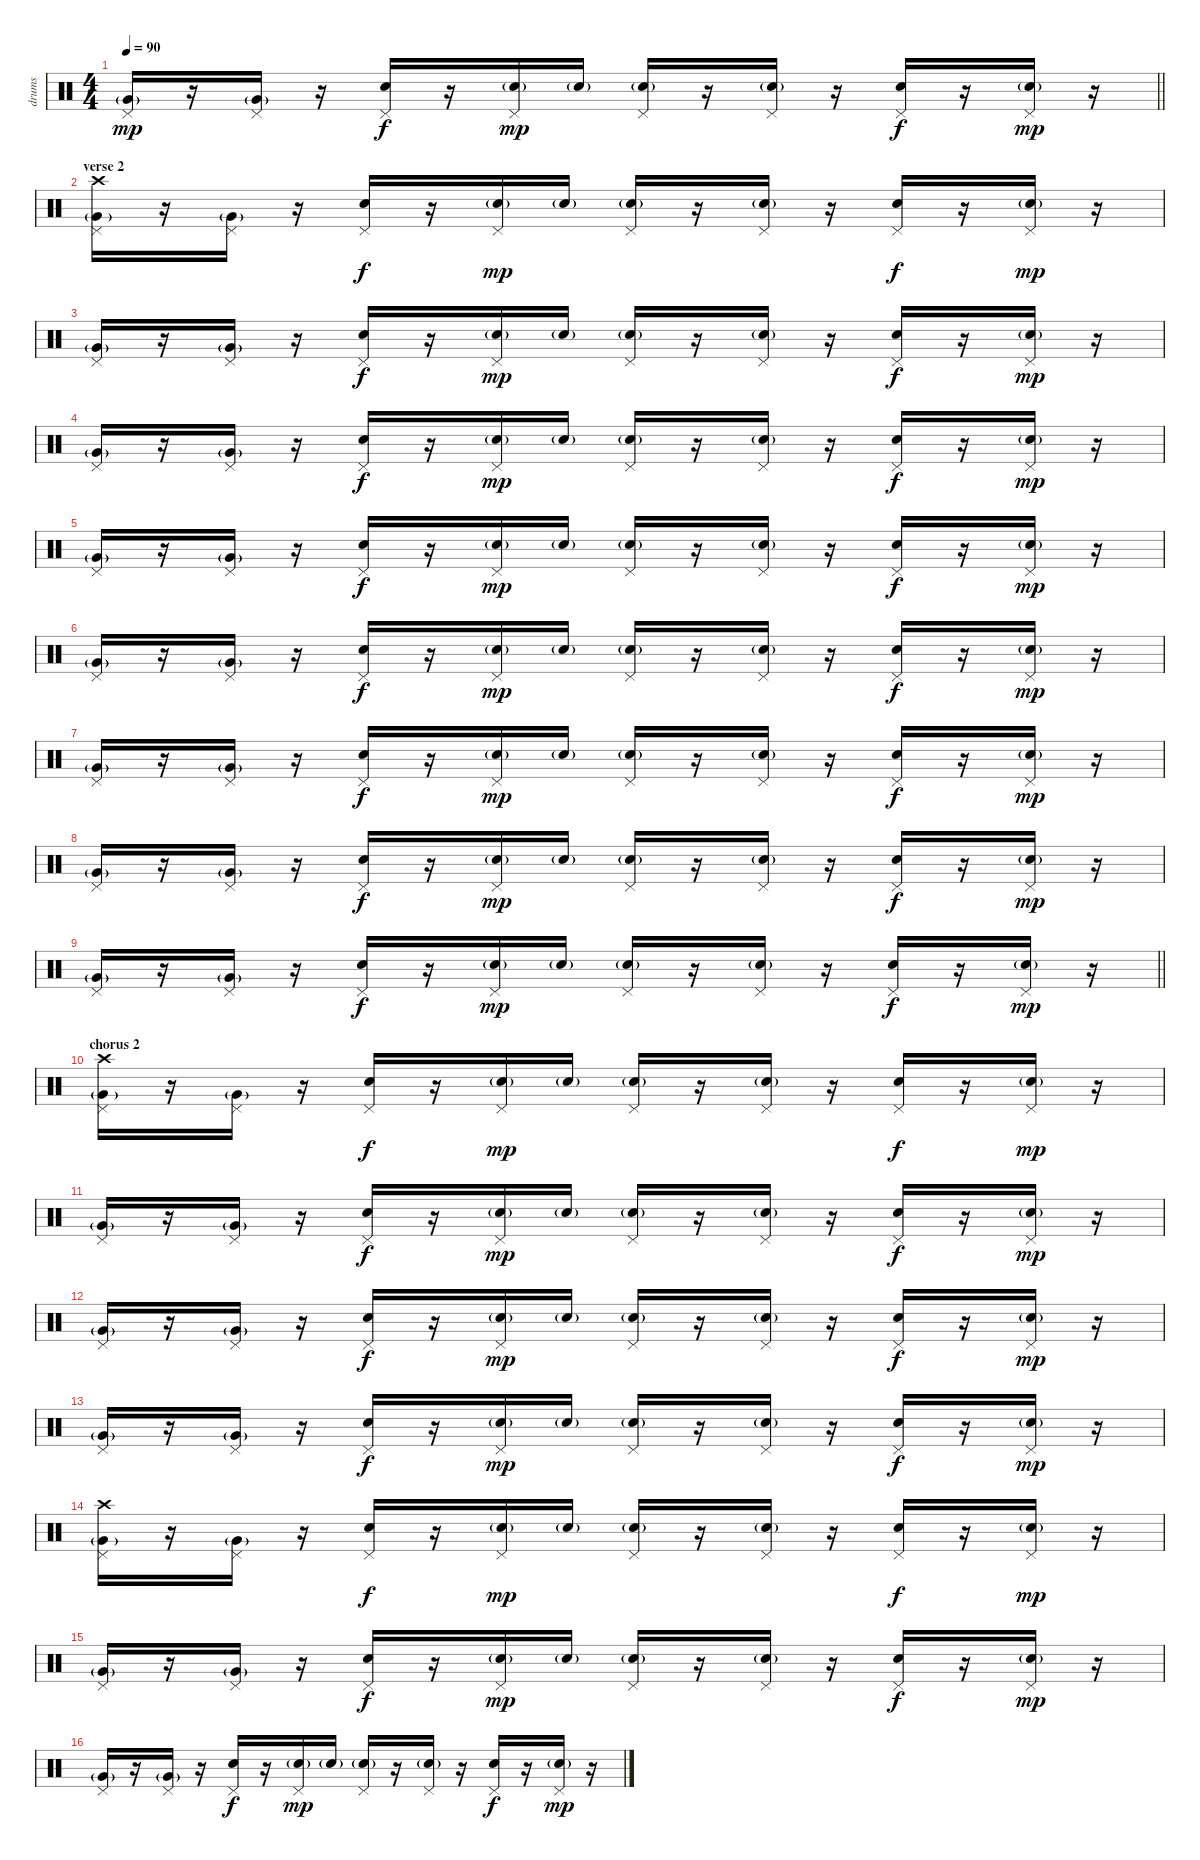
\track ("drums" "drums") {instrument percussion}
\staff {score}
\articulation defaults
\ts (4 4)
\tempo 90
\clef neutral
\barLineRight lightlight
\ks c
("Very Low Tom (hit)"{g} "Pedal Hi-Hat (hit)").16{dy mp} r.16 ("Very Low Tom (hit)"{g} "Pedal Hi-Hat (hit)").16 r.16 ("Electric Snare (hit)" "Pedal Hi-Hat (hit)").16{dy f} r.16 ("Electric Snare (hit)"{g} "Pedal Hi-Hat (hit)").16{dy mp} "Electric Snare (hit)"{g}.16 ("Electric Snare (hit)"{g} "Pedal Hi-Hat (hit)").16 r.16 ("Electric Snare (hit)"{g} "Pedal Hi-Hat (hit)").16 r.16 ("Electric Snare (hit)" "Pedal Hi-Hat (hit)").16{dy f} r.16 ("Electric Snare (hit)"{g} "Pedal Hi-Hat (hit)").16{dy mp} r.16 |
\section ("" "verse 2")
("Very Low Tom (hit)"{g} "Pedal Hi-Hat (hit)" "Crash high (hit)").16 r.16 ("Very Low Tom (hit)"{g} "Pedal Hi-Hat (hit)").16 r.16 ("Electric Snare (hit)" "Pedal Hi-Hat (hit)").16{dy f} r.16 ("Electric Snare (hit)"{g} "Pedal Hi-Hat (hit)").16{dy mp} "Electric Snare (hit)"{g}.16 ("Electric Snare (hit)"{g} "Pedal Hi-Hat (hit)").16 r.16 ("Electric Snare (hit)"{g} "Pedal Hi-Hat (hit)").16 r.16 ("Electric Snare (hit)" "Pedal Hi-Hat (hit)").16{dy f} r.16 ("Electric Snare (hit)"{g} "Pedal Hi-Hat (hit)").16{dy mp} r.16 |
("Very Low Tom (hit)"{g} "Pedal Hi-Hat (hit)").16 r.16 ("Very Low Tom (hit)"{g} "Pedal Hi-Hat (hit)").16 r.16 ("Electric Snare (hit)" "Pedal Hi-Hat (hit)").16{dy f} r.16 ("Electric Snare (hit)"{g} "Pedal Hi-Hat (hit)").16{dy mp} "Electric Snare (hit)"{g}.16 ("Electric Snare (hit)"{g} "Pedal Hi-Hat (hit)").16 r.16 ("Electric Snare (hit)"{g} "Pedal Hi-Hat (hit)").16 r.16 ("Electric Snare (hit)" "Pedal Hi-Hat (hit)").16{dy f} r.16 ("Electric Snare (hit)"{g} "Pedal Hi-Hat (hit)").16{dy mp} r.16 |
("Very Low Tom (hit)"{g} "Pedal Hi-Hat (hit)").16 r.16 ("Very Low Tom (hit)"{g} "Pedal Hi-Hat (hit)").16 r.16 ("Electric Snare (hit)" "Pedal Hi-Hat (hit)").16{dy f} r.16 ("Electric Snare (hit)"{g} "Pedal Hi-Hat (hit)").16{dy mp} "Electric Snare (hit)"{g}.16 ("Electric Snare (hit)"{g} "Pedal Hi-Hat (hit)").16 r.16 ("Electric Snare (hit)"{g} "Pedal Hi-Hat (hit)").16 r.16 ("Electric Snare (hit)" "Pedal Hi-Hat (hit)").16{dy f} r.16 ("Electric Snare (hit)"{g} "Pedal Hi-Hat (hit)").16{dy mp} r.16 |
("Very Low Tom (hit)"{g} "Pedal Hi-Hat (hit)").16 r.16 ("Very Low Tom (hit)"{g} "Pedal Hi-Hat (hit)").16 r.16 ("Electric Snare (hit)" "Pedal Hi-Hat (hit)").16{dy f} r.16 ("Electric Snare (hit)"{g} "Pedal Hi-Hat (hit)").16{dy mp} "Electric Snare (hit)"{g}.16 ("Electric Snare (hit)"{g} "Pedal Hi-Hat (hit)").16 r.16 ("Electric Snare (hit)"{g} "Pedal Hi-Hat (hit)").16 r.16 ("Electric Snare (hit)" "Pedal Hi-Hat (hit)").16{dy f} r.16 ("Electric Snare (hit)"{g} "Pedal Hi-Hat (hit)").16{dy mp} r.16 |
("Very Low Tom (hit)"{g} "Pedal Hi-Hat (hit)").16 r.16 ("Very Low Tom (hit)"{g} "Pedal Hi-Hat (hit)").16 r.16 ("Electric Snare (hit)" "Pedal Hi-Hat (hit)").16{dy f} r.16 ("Electric Snare (hit)"{g} "Pedal Hi-Hat (hit)").16{dy mp} "Electric Snare (hit)"{g}.16 ("Electric Snare (hit)"{g} "Pedal Hi-Hat (hit)").16 r.16 ("Electric Snare (hit)"{g} "Pedal Hi-Hat (hit)").16 r.16 ("Electric Snare (hit)" "Pedal Hi-Hat (hit)").16{dy f} r.16 ("Electric Snare (hit)"{g} "Pedal Hi-Hat (hit)").16{dy mp} r.16 |
("Very Low Tom (hit)"{g} "Pedal Hi-Hat (hit)").16 r.16 ("Very Low Tom (hit)"{g} "Pedal Hi-Hat (hit)").16 r.16 ("Electric Snare (hit)" "Pedal Hi-Hat (hit)").16{dy f} r.16 ("Electric Snare (hit)"{g} "Pedal Hi-Hat (hit)").16{dy mp} "Electric Snare (hit)"{g}.16 ("Electric Snare (hit)"{g} "Pedal Hi-Hat (hit)").16 r.16 ("Electric Snare (hit)"{g} "Pedal Hi-Hat (hit)").16 r.16 ("Electric Snare (hit)" "Pedal Hi-Hat (hit)").16{dy f} r.16 ("Electric Snare (hit)"{g} "Pedal Hi-Hat (hit)").16{dy mp} r.16 |
("Very Low Tom (hit)"{g} "Pedal Hi-Hat (hit)").16 r.16 ("Very Low Tom (hit)"{g} "Pedal Hi-Hat (hit)").16 r.16 ("Electric Snare (hit)" "Pedal Hi-Hat (hit)").16{dy f} r.16 ("Electric Snare (hit)"{g} "Pedal Hi-Hat (hit)").16{dy mp} "Electric Snare (hit)"{g}.16 ("Electric Snare (hit)"{g} "Pedal Hi-Hat (hit)").16 r.16 ("Electric Snare (hit)"{g} "Pedal Hi-Hat (hit)").16 r.16 ("Electric Snare (hit)" "Pedal Hi-Hat (hit)").16{dy f} r.16 ("Electric Snare (hit)"{g} "Pedal Hi-Hat (hit)").16{dy mp} r.16 |
\barLineRight lightlight
("Very Low Tom (hit)"{g} "Pedal Hi-Hat (hit)").16 r.16 ("Very Low Tom (hit)"{g} "Pedal Hi-Hat (hit)").16 r.16 ("Electric Snare (hit)" "Pedal Hi-Hat (hit)").16{dy f} r.16 ("Electric Snare (hit)"{g} "Pedal Hi-Hat (hit)").16{dy mp} "Electric Snare (hit)"{g}.16 ("Electric Snare (hit)"{g} "Pedal Hi-Hat (hit)").16 r.16 ("Electric Snare (hit)"{g} "Pedal Hi-Hat (hit)").16 r.16 ("Electric Snare (hit)" "Pedal Hi-Hat (hit)").16{dy f} r.16 ("Electric Snare (hit)"{g} "Pedal Hi-Hat (hit)").16{dy mp} r.16 |
\section ("" "chorus 2")
("Very Low Tom (hit)"{g} "Pedal Hi-Hat (hit)" "Crash high (hit)").16 r.16 ("Very Low Tom (hit)"{g} "Pedal Hi-Hat (hit)").16 r.16 ("Electric Snare (hit)" "Pedal Hi-Hat (hit)").16{dy f} r.16 ("Electric Snare (hit)"{g} "Pedal Hi-Hat (hit)").16{dy mp} "Electric Snare (hit)"{g}.16 ("Electric Snare (hit)"{g} "Pedal Hi-Hat (hit)").16 r.16 ("Electric Snare (hit)"{g} "Pedal Hi-Hat (hit)").16 r.16 ("Electric Snare (hit)" "Pedal Hi-Hat (hit)").16{dy f} r.16 ("Electric Snare (hit)"{g} "Pedal Hi-Hat (hit)").16{dy mp} r.16 |
("Very Low Tom (hit)"{g} "Pedal Hi-Hat (hit)").16 r.16 ("Very Low Tom (hit)"{g} "Pedal Hi-Hat (hit)").16 r.16 ("Electric Snare (hit)" "Pedal Hi-Hat (hit)").16{dy f} r.16 ("Electric Snare (hit)"{g} "Pedal Hi-Hat (hit)").16{dy mp} "Electric Snare (hit)"{g}.16 ("Electric Snare (hit)"{g} "Pedal Hi-Hat (hit)").16 r.16 ("Electric Snare (hit)"{g} "Pedal Hi-Hat (hit)").16 r.16 ("Electric Snare (hit)" "Pedal Hi-Hat (hit)").16{dy f} r.16 ("Electric Snare (hit)"{g} "Pedal Hi-Hat (hit)").16{dy mp} r.16 |
("Very Low Tom (hit)"{g} "Pedal Hi-Hat (hit)").16 r.16 ("Very Low Tom (hit)"{g} "Pedal Hi-Hat (hit)").16 r.16 ("Electric Snare (hit)" "Pedal Hi-Hat (hit)").16{dy f} r.16 ("Electric Snare (hit)"{g} "Pedal Hi-Hat (hit)").16{dy mp} "Electric Snare (hit)"{g}.16 ("Electric Snare (hit)"{g} "Pedal Hi-Hat (hit)").16 r.16 ("Electric Snare (hit)"{g} "Pedal Hi-Hat (hit)").16 r.16 ("Electric Snare (hit)" "Pedal Hi-Hat (hit)").16{dy f} r.16 ("Electric Snare (hit)"{g} "Pedal Hi-Hat (hit)").16{dy mp} r.16 |
("Very Low Tom (hit)"{g} "Pedal Hi-Hat (hit)").16 r.16 ("Very Low Tom (hit)"{g} "Pedal Hi-Hat (hit)").16 r.16 ("Electric Snare (hit)" "Pedal Hi-Hat (hit)").16{dy f} r.16 ("Electric Snare (hit)"{g} "Pedal Hi-Hat (hit)").16{dy mp} "Electric Snare (hit)"{g}.16 ("Electric Snare (hit)"{g} "Pedal Hi-Hat (hit)").16 r.16 ("Electric Snare (hit)"{g} "Pedal Hi-Hat (hit)").16 r.16 ("Electric Snare (hit)" "Pedal Hi-Hat (hit)").16{dy f} r.16 ("Electric Snare (hit)"{g} "Pedal Hi-Hat (hit)").16{dy mp} r.16 |
("Very Low Tom (hit)"{g} "Pedal Hi-Hat (hit)" "Crash high (hit)").16 r.16 ("Very Low Tom (hit)"{g} "Pedal Hi-Hat (hit)").16 r.16 ("Electric Snare (hit)" "Pedal Hi-Hat (hit)").16{dy f} r.16 ("Electric Snare (hit)"{g} "Pedal Hi-Hat (hit)").16{dy mp} "Electric Snare (hit)"{g}.16 ("Electric Snare (hit)"{g} "Pedal Hi-Hat (hit)").16 r.16 ("Electric Snare (hit)"{g} "Pedal Hi-Hat (hit)").16 r.16 ("Electric Snare (hit)" "Pedal Hi-Hat (hit)").16{dy f} r.16 ("Electric Snare (hit)"{g} "Pedal Hi-Hat (hit)").16{dy mp} r.16 |
("Very Low Tom (hit)"{g} "Pedal Hi-Hat (hit)").16 r.16 ("Very Low Tom (hit)"{g} "Pedal Hi-Hat (hit)").16 r.16 ("Electric Snare (hit)" "Pedal Hi-Hat (hit)").16{dy f} r.16 ("Electric Snare (hit)"{g} "Pedal Hi-Hat (hit)").16{dy mp} "Electric Snare (hit)"{g}.16 ("Electric Snare (hit)"{g} "Pedal Hi-Hat (hit)").16 r.16 ("Electric Snare (hit)"{g} "Pedal Hi-Hat (hit)").16 r.16 ("Electric Snare (hit)" "Pedal Hi-Hat (hit)").16{dy f} r.16 ("Electric Snare (hit)"{g} "Pedal Hi-Hat (hit)").16{dy mp} r.16 |
("Very Low Tom (hit)"{g} "Pedal Hi-Hat (hit)").16 r.16 ("Very Low Tom (hit)"{g} "Pedal Hi-Hat (hit)").16 r.16 ("Electric Snare (hit)" "Pedal Hi-Hat (hit)").16{dy f} r.16 ("Electric Snare (hit)"{g} "Pedal Hi-Hat (hit)").16{dy mp} "Electric Snare (hit)"{g}.16 ("Electric Snare (hit)"{g} "Pedal Hi-Hat (hit)").16 r.16 ("Electric Snare (hit)"{g} "Pedal Hi-Hat (hit)").16 r.16 ("Electric Snare (hit)" "Pedal Hi-Hat (hit)").16{dy f} r.16 ("Electric Snare (hit)"{g} "Pedal Hi-Hat (hit)").16{dy mp} r.16
